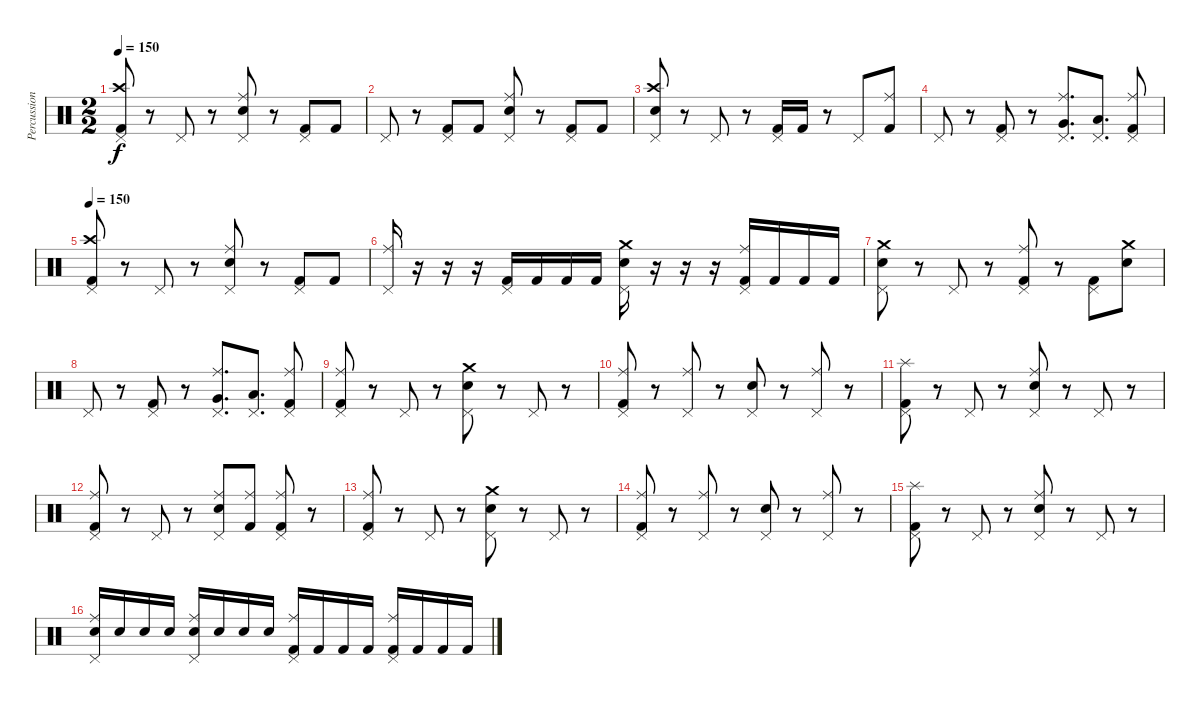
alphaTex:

\track ("Percussion" "Percussion") {instrument percussion}
\staff {score}
\articulation defaults
\ts (2 2)
\tempo 150
\clef neutral
\ks c
("Pedal Hi-Hat (hit)" "Crash high (hit)" "Kick (hit) 2").8{dy f} r.8 "Pedal Hi-Hat (hit)".8 r.8 ("Pedal Hi-Hat (hit)" "Ride (middle)" "Snare (hit) 2").8 r.8 ("Pedal Hi-Hat (hit)" "Kick (hit) 2").8 "Kick (hit) 2".8 |
"Pedal Hi-Hat (hit)".8 r.8 ("Pedal Hi-Hat (hit)" "Kick (hit) 2").8 "Kick (hit) 2".8 ("Pedal Hi-Hat (hit)" "Ride (middle)" "Snare (hit) 2").8 r.8 ("Pedal Hi-Hat (hit)" "Kick (hit) 2").8 "Kick (hit) 2".8 |
("Pedal Hi-Hat (hit)" "Crash high (hit)" "Snare (hit) 2").8 r.8 "Pedal Hi-Hat (hit)".8 r.8 ("Pedal Hi-Hat (hit)" "Kick (hit) 2").16 "Kick (hit) 2".16 r.8 "Pedal Hi-Hat (hit)".8 ("Ride (middle)" "Kick (hit) 2").8 |
"Pedal Hi-Hat (hit)".8 r.8 ("Pedal Hi-Hat (hit)" "Kick (hit) 2").8 r.8 ("Pedal Hi-Hat (hit)" "Ride (middle)" "Very Low Tom (hit)").8{d} ("Pedal Hi-Hat (hit)" "Low Floor Tom (hit)").8{d} ("Pedal Hi-Hat (hit)" "Ride (middle)" "Kick (hit) 2").8 |
\tempo 150
("Pedal Hi-Hat (hit)" "Crash high (hit)" "Kick (hit) 2").8 r.8 "Pedal Hi-Hat (hit)".8 r.8 ("Pedal Hi-Hat (hit)" "Ride (middle)" "Snare (hit) 2").8 r.8 ("Pedal Hi-Hat (hit)" "Kick (hit) 2").8 "Kick (hit) 2".8 |
("Pedal Hi-Hat (hit)" "Ride (middle)").16 r.16 r.16 r.16 ("Pedal Hi-Hat (hit)" "Kick (hit) 2").16 "Kick (hit) 2".16 "Kick (hit) 2".16 "Kick (hit) 2".16 ("Pedal Hi-Hat (hit)" "Crash medium (hit)" "Snare (hit) 2").16 r.16 r.16 r.16 ("Pedal Hi-Hat (hit)" "Ride (middle)" "Kick (hit) 2").16 "Kick (hit) 2".16 "Kick (hit) 2".16 "Kick (hit) 2".16 |
("Pedal Hi-Hat (hit)" "Crash medium (hit)" "Snare (hit) 2").8 r.8 "Pedal Hi-Hat (hit)".8 r.8 ("Pedal Hi-Hat (hit)" "Ride (middle)" "Kick (hit) 2").8 r.8 ("Pedal Hi-Hat (hit)" "Kick (hit) 2").8 ("Crash medium (hit)" "Snare (hit) 2").8 |
"Pedal Hi-Hat (hit)".8 r.8 ("Pedal Hi-Hat (hit)" "Kick (hit) 2").8 r.8 ("Pedal Hi-Hat (hit)" "Ride (middle)" "Very Low Tom (hit)").8{d} ("Pedal Hi-Hat (hit)" "Low Floor Tom (hit)").8{d} ("Pedal Hi-Hat (hit)" "Ride (middle)" "Kick (hit) 2").8 |
("Pedal Hi-Hat (hit)" "Ride (middle)" "Kick (hit) 2").8 r.8 "Pedal Hi-Hat (hit)".8 r.8 ("Pedal Hi-Hat (hit)" "Crash medium (hit)" "Snare (hit) 2").8 r.8 "Pedal Hi-Hat (hit)".8 r.8 |
("Pedal Hi-Hat (hit)" "Ride (middle)" "Kick (hit) 2").8 r.8 ("Pedal Hi-Hat (hit)" "Ride (middle)").8 r.8 ("Pedal Hi-Hat (hit)" "Snare (hit) 2").8 r.8 ("Pedal Hi-Hat (hit)" "Ride (middle)").8 r.8 |
("Pedal Hi-Hat (hit)" "Splash (hit)" "Kick (hit) 2").8 r.8 "Pedal Hi-Hat (hit)".8 r.8 ("Pedal Hi-Hat (hit)" "Ride (middle)" "Snare (hit) 2").8 r.8 "Pedal Hi-Hat (hit)".8 r.8 |
("Pedal Hi-Hat (hit)" "Ride (middle)" "Kick (hit) 2").8 r.8 "Pedal Hi-Hat (hit)".8 r.8 ("Pedal Hi-Hat (hit)" "Ride (middle)" "Snare (hit) 2").8 ("Ride (middle)" "Kick (hit) 2").8 ("Pedal Hi-Hat (hit)" "Ride (middle)" "Kick (hit) 2").8 r.8 |
("Pedal Hi-Hat (hit)" "Ride (middle)" "Kick (hit) 2").8 r.8 "Pedal Hi-Hat (hit)".8 r.8 ("Pedal Hi-Hat (hit)" "Crash medium (hit)" "Snare (hit) 2").8 r.8 "Pedal Hi-Hat (hit)".8 r.8 |
("Pedal Hi-Hat (hit)" "Ride (middle)" "Kick (hit) 2").8 r.8 ("Pedal Hi-Hat (hit)" "Ride (middle)").8 r.8 ("Pedal Hi-Hat (hit)" "Snare (hit) 2").8 r.8 ("Pedal Hi-Hat (hit)" "Ride (middle)").8 r.8 |
("Pedal Hi-Hat (hit)" "Splash (hit)" "Kick (hit) 2").8 r.8 "Pedal Hi-Hat (hit)".8 r.8 ("Pedal Hi-Hat (hit)" "Ride (middle)" "Snare (hit) 2").8 r.8 "Pedal Hi-Hat (hit)".8 r.8 |
("Pedal Hi-Hat (hit)" "Ride (middle)" "Snare (hit) 2").16 "Snare (hit) 2".16 "Snare (hit) 2".16 "Snare (hit) 2".16 ("Pedal Hi-Hat (hit)" "Ride (middle)" "Snare (hit) 2").16 "Snare (hit) 2".16 "Snare (hit) 2".16 "Snare (hit) 2".16 ("Pedal Hi-Hat (hit)" "Ride (middle)" "Kick (hit) 2").16 "Kick (hit) 2".16 "Kick (hit) 2".16 "Kick (hit) 2".16 ("Pedal Hi-Hat (hit)" "Ride (middle)" "Kick (hit) 2").16 "Kick (hit) 2".16 "Kick (hit) 2".16 "Kick (hit) 2".16
